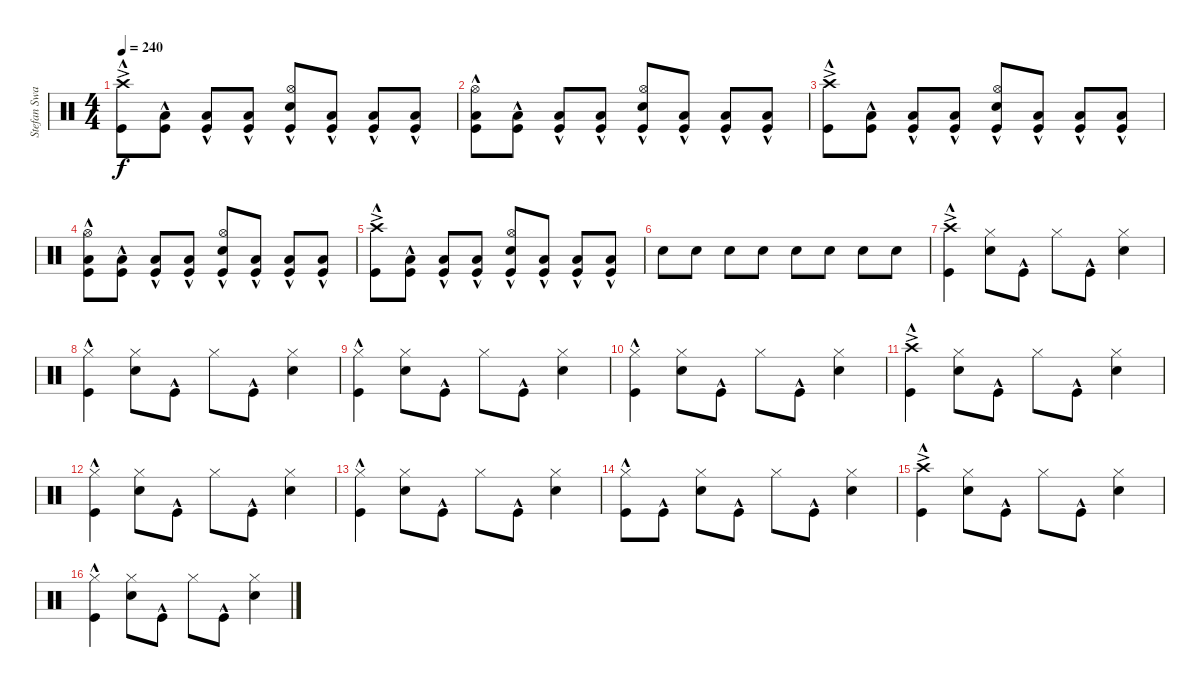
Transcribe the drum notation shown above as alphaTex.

\track ("Stefan Swarztmann" "Stefan Swa") {instrument percussion}
\staff {score}
\articulation defaults
\ts (4 4)
\tempo 240
\clef neutral
\ks c
("Crash high (hit)"{ac} "Kick (hit)"{hac}).8{dy f} ("Low Floor Tom (hit)" "Kick (hit)"{hac}).8 ("Low Floor Tom (hit)" "Kick (hit)"{hac}).8 ("Low Floor Tom (hit)" "Kick (hit)"{hac}).8 ("Hi-Hat (open)" "Snare (hit) 2" "Kick (hit)"{hac}).8 ("Low Floor Tom (hit)" "Kick (hit)"{hac}).8 ("Low Floor Tom (hit)" "Kick (hit)"{hac}).8 ("Low Floor Tom (hit)" "Kick (hit)"{hac}).8 |
("Hi-Hat (open)" "Low Floor Tom (hit)" "Kick (hit)"{hac}).8 ("Low Floor Tom (hit)" "Kick (hit)"{hac}).8 ("Low Floor Tom (hit)" "Kick (hit)"{hac}).8 ("Low Floor Tom (hit)" "Kick (hit)"{hac}).8 ("Hi-Hat (open)" "Snare (hit) 2" "Kick (hit)"{hac}).8 ("Low Floor Tom (hit)" "Kick (hit)"{hac}).8 ("Low Floor Tom (hit)" "Kick (hit)"{hac}).8 ("Low Floor Tom (hit)" "Kick (hit)"{hac}).8 |
("Crash high (hit)"{ac} "Kick (hit)"{hac}).8 ("Low Floor Tom (hit)" "Kick (hit)"{hac}).8 ("Low Floor Tom (hit)" "Kick (hit)"{hac}).8 ("Low Floor Tom (hit)" "Kick (hit)"{hac}).8 ("Hi-Hat (open)" "Snare (hit) 2" "Kick (hit)"{hac}).8 ("Low Floor Tom (hit)" "Kick (hit)"{hac}).8 ("Low Floor Tom (hit)" "Kick (hit)"{hac}).8 ("Low Floor Tom (hit)" "Kick (hit)"{hac}).8 |
("Hi-Hat (open)" "Low Floor Tom (hit)" "Kick (hit)"{hac}).8 ("Low Floor Tom (hit)" "Kick (hit)"{hac}).8 ("Low Floor Tom (hit)" "Kick (hit)"{hac}).8 ("Low Floor Tom (hit)" "Kick (hit)"{hac}).8 ("Hi-Hat (open)" "Snare (hit) 2" "Kick (hit)"{hac}).8 ("Low Floor Tom (hit)" "Kick (hit)"{hac}).8 ("Low Floor Tom (hit)" "Kick (hit)"{hac}).8 ("Low Floor Tom (hit)" "Kick (hit)"{hac}).8 |
("Crash high (hit)"{ac} "Kick (hit)"{hac}).8 ("Low Floor Tom (hit)" "Kick (hit)"{hac}).8 ("Low Floor Tom (hit)" "Kick (hit)"{hac}).8 ("Low Floor Tom (hit)" "Kick (hit)"{hac}).8 ("Hi-Hat (open)" "Snare (hit) 2" "Kick (hit)"{hac}).8 ("Low Floor Tom (hit)" "Kick (hit)"{hac}).8 ("Low Floor Tom (hit)" "Kick (hit)"{hac}).8 ("Low Floor Tom (hit)" "Kick (hit)"{hac}).8 |
"Snare (hit) 2".8 "Snare (hit) 2".8 "Snare (hit) 2".8 "Snare (hit) 2".8 "Snare (hit) 2".8 "Snare (hit) 2".8 "Snare (hit) 2".8 "Snare (hit) 2".8 |
("Crash high (hit)"{ac} "Kick (hit)"{hac}).4 ("Hi-Hat (closed)" "Snare (hit) 2").8 "Kick (hit)"{hac}.8 "Hi-Hat (closed)".8 "Kick (hit)"{hac}.8 ("Hi-Hat (closed)" "Snare (hit) 2").4 |
("Hi-Hat (closed)" "Kick (hit)"{hac}).4 ("Hi-Hat (closed)" "Snare (hit) 2").8 "Kick (hit)"{hac}.8 "Hi-Hat (closed)".8 "Kick (hit)"{hac}.8 ("Hi-Hat (closed)" "Snare (hit) 2").4 |
("Hi-Hat (closed)" "Kick (hit)"{hac}).4 ("Hi-Hat (closed)" "Snare (hit) 2").8 "Kick (hit)"{hac}.8 "Hi-Hat (closed)".8 "Kick (hit)"{hac}.8 ("Hi-Hat (closed)" "Snare (hit) 2").4 |
("Hi-Hat (closed)" "Kick (hit)"{hac}).4 ("Hi-Hat (closed)" "Snare (hit) 2").8 "Kick (hit)"{hac}.8 "Hi-Hat (closed)".8 "Kick (hit)"{hac}.8 ("Hi-Hat (closed)" "Snare (hit) 2").4 |
("Crash high (hit)"{ac} "Kick (hit)"{hac}).4 ("Hi-Hat (closed)" "Snare (hit) 2").8 "Kick (hit)"{hac}.8 "Hi-Hat (closed)".8 "Kick (hit)"{hac}.8 ("Hi-Hat (closed)" "Snare (hit) 2").4 |
("Hi-Hat (closed)" "Kick (hit)"{hac}).4 ("Hi-Hat (closed)" "Snare (hit) 2").8 "Kick (hit)"{hac}.8 "Hi-Hat (closed)".8 "Kick (hit)"{hac}.8 ("Hi-Hat (closed)" "Snare (hit) 2").4 |
("Hi-Hat (closed)" "Kick (hit)"{hac}).4 ("Hi-Hat (closed)" "Snare (hit) 2").8 "Kick (hit)"{hac}.8 "Hi-Hat (closed)".8 "Kick (hit)"{hac}.8 ("Hi-Hat (closed)" "Snare (hit) 2").4 |
("Hi-Hat (closed)" "Kick (hit)"{hac}).8 "Kick (hit)"{hac}.8 ("Hi-Hat (closed)" "Snare (hit) 2").8 "Kick (hit)"{hac}.8 "Hi-Hat (closed)".8 "Kick (hit)"{hac}.8 ("Hi-Hat (closed)" "Snare (hit) 2").4 |
("Crash high (hit)"{ac} "Kick (hit)"{hac}).4 ("Hi-Hat (closed)" "Snare (hit) 2").8 "Kick (hit)"{hac}.8 "Hi-Hat (closed)".8 "Kick (hit)"{hac}.8 ("Hi-Hat (closed)" "Snare (hit) 2").4 |
("Hi-Hat (closed)" "Kick (hit)"{hac}).4 ("Hi-Hat (closed)" "Snare (hit) 2").8 "Kick (hit)"{hac}.8 "Hi-Hat (closed)".8 "Kick (hit)"{hac}.8 ("Hi-Hat (closed)" "Snare (hit) 2").4
